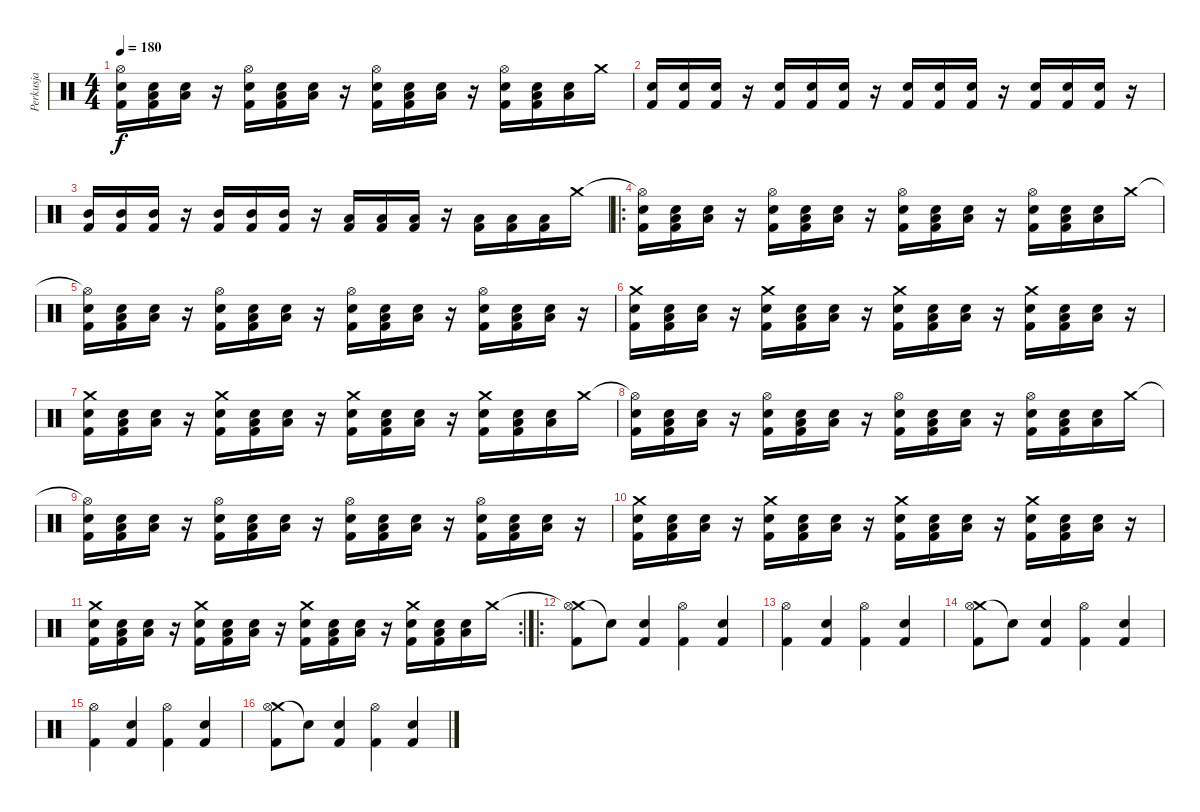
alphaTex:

\track ("Perkusja" "Perkusja") {instrument percussion}
\staff {score}
\articulation defaults
\ts (4 4)
\tempo 180
\clef neutral
\ks c
("Hi-Hat (open)" "Snare (hit) 2" "Kick (hit) 2").16{dy f} ("Low Tom (hit)" "Snare (hit) 2" "Kick (hit) 2").16 ("Low Tom (hit)" "Snare (hit) 2").16 r.16 ("Hi-Hat (open)" "Snare (hit) 2" "Kick (hit) 2").16 ("Low Tom (hit)" "Snare (hit) 2" "Kick (hit) 2").16 ("Low Tom (hit)" "Snare (hit) 2").16 r.16 ("Hi-Hat (open)" "Snare (hit) 2" "Kick (hit) 2").16 ("Low Tom (hit)" "Snare (hit) 2" "Kick (hit) 2").16 ("Low Tom (hit)" "Snare (hit) 2").16 r.16 ("Hi-Hat (open)" "Snare (hit) 2" "Kick (hit) 2").16 ("Low Tom (hit)" "Snare (hit) 2" "Kick (hit) 2").16 ("Low Tom (hit)" "Snare (hit) 2").16 "Crash medium (hit)".16 |
("Snare (hit) 2" "Kick (hit) 2").16 ("Snare (hit) 2" "Kick (hit) 2").16 ("Snare (hit) 2" "Kick (hit) 2").16 r.16 ("Snare (hit) 2" "Kick (hit) 2").16 ("Snare (hit) 2" "Kick (hit) 2").16 ("Snare (hit) 2" "Kick (hit) 2").16 r.16 ("Snare (hit) 2" "Kick (hit) 2").16 ("Snare (hit) 2" "Kick (hit) 2").16 ("Snare (hit) 2" "Kick (hit) 2").16 r.16 ("Snare (hit) 2" "Kick (hit) 2").16 ("Snare (hit) 2" "Kick (hit) 2").16 ("Snare (hit) 2" "Kick (hit) 2").16 r.16 |
("Mid Tom (hit)" "Kick (hit) 2").16 ("Mid Tom (hit)" "Kick (hit) 2").16 ("Mid Tom (hit)" "Kick (hit) 2").16 r.16 ("Mid Tom (hit)" "Kick (hit) 2").16 ("Mid Tom (hit)" "Kick (hit) 2").16 ("Mid Tom (hit)" "Kick (hit) 2").16 r.16 ("Low Tom (hit)" "Kick (hit) 2").16 ("Low Tom (hit)" "Kick (hit) 2").16 ("Low Tom (hit)" "Kick (hit) 2").16 r.16 ("Low Tom (hit)" "Kick (hit) 2").16 ("Low Tom (hit)" "Kick (hit) 2").16 ("Low Tom (hit)" "Kick (hit) 2").16 "Crash medium (hit)".16 |
\ro
("Hi-Hat (open)"{t} "Snare (hit) 2" "Kick (hit) 2").16 ("Low Tom (hit)" "Snare (hit) 2" "Kick (hit) 2").16 ("Low Tom (hit)" "Snare (hit) 2").16 r.16 ("Hi-Hat (open)" "Snare (hit) 2" "Kick (hit) 2").16 ("Low Tom (hit)" "Snare (hit) 2" "Kick (hit) 2").16 ("Low Tom (hit)" "Snare (hit) 2").16 r.16 ("Hi-Hat (open)" "Snare (hit) 2" "Kick (hit) 2").16 ("Low Tom (hit)" "Snare (hit) 2" "Kick (hit) 2").16 ("Low Tom (hit)" "Snare (hit) 2").16 r.16 ("Hi-Hat (open)" "Snare (hit) 2" "Kick (hit) 2").16 ("Low Tom (hit)" "Snare (hit) 2" "Kick (hit) 2").16 ("Low Tom (hit)" "Snare (hit) 2").16 "Crash medium (hit)".16 |
("Hi-Hat (open)"{t} "Snare (hit) 2" "Kick (hit) 2").16 ("Low Tom (hit)" "Snare (hit) 2" "Kick (hit) 2").16 ("Low Tom (hit)" "Snare (hit) 2").16 r.16 ("Hi-Hat (open)" "Snare (hit) 2" "Kick (hit) 2").16 ("Low Tom (hit)" "Snare (hit) 2" "Kick (hit) 2").16 ("Low Tom (hit)" "Snare (hit) 2").16 r.16 ("Hi-Hat (open)" "Snare (hit) 2" "Kick (hit) 2").16 ("Low Tom (hit)" "Snare (hit) 2" "Kick (hit) 2").16 ("Low Tom (hit)" "Snare (hit) 2").16 r.16 ("Hi-Hat (open)" "Snare (hit) 2" "Kick (hit) 2").16 ("Low Tom (hit)" "Snare (hit) 2" "Kick (hit) 2").16 ("Low Tom (hit)" "Snare (hit) 2").16 r.16 |
("Crash medium (hit)" "Snare (hit) 2" "Kick (hit) 2").16 ("Low Tom (hit)" "Snare (hit) 2" "Kick (hit) 2").16 ("Low Tom (hit)" "Snare (hit) 2").16 r.16 ("Crash medium (hit)" "Snare (hit) 2" "Kick (hit) 2").16 ("Low Tom (hit)" "Snare (hit) 2" "Kick (hit) 2").16 ("Low Tom (hit)" "Snare (hit) 2").16 r.16 ("Crash medium (hit)" "Snare (hit) 2" "Kick (hit) 2").16 ("Low Tom (hit)" "Snare (hit) 2" "Kick (hit) 2").16 ("Low Tom (hit)" "Snare (hit) 2").16 r.16 ("Crash medium (hit)" "Snare (hit) 2" "Kick (hit) 2").16 ("Low Tom (hit)" "Snare (hit) 2" "Kick (hit) 2").16 ("Low Tom (hit)" "Snare (hit) 2").16 r.16 |
("Crash medium (hit)" "Snare (hit) 2" "Kick (hit) 2").16 ("Low Tom (hit)" "Snare (hit) 2" "Kick (hit) 2").16 ("Low Tom (hit)" "Snare (hit) 2").16 r.16 ("Crash medium (hit)" "Snare (hit) 2" "Kick (hit) 2").16 ("Low Tom (hit)" "Snare (hit) 2" "Kick (hit) 2").16 ("Low Tom (hit)" "Snare (hit) 2").16 r.16 ("Crash medium (hit)" "Snare (hit) 2" "Kick (hit) 2").16 ("Low Tom (hit)" "Snare (hit) 2" "Kick (hit) 2").16 ("Low Tom (hit)" "Snare (hit) 2").16 r.16 ("Crash medium (hit)" "Snare (hit) 2" "Kick (hit) 2").16 ("Low Tom (hit)" "Snare (hit) 2" "Kick (hit) 2").16 ("Low Tom (hit)" "Snare (hit) 2").16 "Crash medium (hit)".16 |
("Hi-Hat (open)"{t} "Snare (hit) 2" "Kick (hit) 2").16 ("Low Tom (hit)" "Snare (hit) 2" "Kick (hit) 2").16 ("Low Tom (hit)" "Snare (hit) 2").16 r.16 ("Hi-Hat (open)" "Snare (hit) 2" "Kick (hit) 2").16 ("Low Tom (hit)" "Snare (hit) 2" "Kick (hit) 2").16 ("Low Tom (hit)" "Snare (hit) 2").16 r.16 ("Hi-Hat (open)" "Snare (hit) 2" "Kick (hit) 2").16 ("Low Tom (hit)" "Snare (hit) 2" "Kick (hit) 2").16 ("Low Tom (hit)" "Snare (hit) 2").16 r.16 ("Hi-Hat (open)" "Snare (hit) 2" "Kick (hit) 2").16 ("Low Tom (hit)" "Snare (hit) 2" "Kick (hit) 2").16 ("Low Tom (hit)" "Snare (hit) 2").16 "Crash medium (hit)".16 |
("Hi-Hat (open)"{t} "Snare (hit) 2" "Kick (hit) 2").16 ("Low Tom (hit)" "Snare (hit) 2" "Kick (hit) 2").16 ("Low Tom (hit)" "Snare (hit) 2").16 r.16 ("Hi-Hat (open)" "Snare (hit) 2" "Kick (hit) 2").16 ("Low Tom (hit)" "Snare (hit) 2" "Kick (hit) 2").16 ("Low Tom (hit)" "Snare (hit) 2").16 r.16 ("Hi-Hat (open)" "Snare (hit) 2" "Kick (hit) 2").16 ("Low Tom (hit)" "Snare (hit) 2" "Kick (hit) 2").16 ("Low Tom (hit)" "Snare (hit) 2").16 r.16 ("Hi-Hat (open)" "Snare (hit) 2" "Kick (hit) 2").16 ("Low Tom (hit)" "Snare (hit) 2" "Kick (hit) 2").16 ("Low Tom (hit)" "Snare (hit) 2").16 r.16 |
("Crash medium (hit)" "Snare (hit) 2" "Kick (hit) 2").16 ("Low Tom (hit)" "Snare (hit) 2" "Kick (hit) 2").16 ("Low Tom (hit)" "Snare (hit) 2").16 r.16 ("Crash medium (hit)" "Snare (hit) 2" "Kick (hit) 2").16 ("Low Tom (hit)" "Snare (hit) 2" "Kick (hit) 2").16 ("Low Tom (hit)" "Snare (hit) 2").16 r.16 ("Crash medium (hit)" "Snare (hit) 2" "Kick (hit) 2").16 ("Low Tom (hit)" "Snare (hit) 2" "Kick (hit) 2").16 ("Low Tom (hit)" "Snare (hit) 2").16 r.16 ("Crash medium (hit)" "Snare (hit) 2" "Kick (hit) 2").16 ("Low Tom (hit)" "Snare (hit) 2" "Kick (hit) 2").16 ("Low Tom (hit)" "Snare (hit) 2").16 r.16 |
\rc 2
("Crash medium (hit)" "Snare (hit) 2" "Kick (hit) 2").16 ("Low Tom (hit)" "Snare (hit) 2" "Kick (hit) 2").16 ("Low Tom (hit)" "Snare (hit) 2").16 r.16 ("Crash medium (hit)" "Snare (hit) 2" "Kick (hit) 2").16 ("Low Tom (hit)" "Snare (hit) 2" "Kick (hit) 2").16 ("Low Tom (hit)" "Snare (hit) 2").16 r.16 ("Crash medium (hit)" "Snare (hit) 2" "Kick (hit) 2").16 ("Low Tom (hit)" "Snare (hit) 2" "Kick (hit) 2").16 ("Low Tom (hit)" "Snare (hit) 2").16 r.16 ("Crash medium (hit)" "Snare (hit) 2" "Kick (hit) 2").16 ("Low Tom (hit)" "Snare (hit) 2" "Kick (hit) 2").16 ("Low Tom (hit)" "Snare (hit) 2").16 "Crash medium (hit)".16 |
\ro
("Crash medium (hit)"{t} "Hi-Hat (open)" "Kick (hit) 2").8 "Snare (hit)"{t}.8 ("Electric Snare (hit)" "Kick (hit) 2").4 ("Hi-Hat (open)" "Kick (hit) 2").4 ("Electric Snare (hit)" "Kick (hit) 2").4 |
("Hi-Hat (open)" "Kick (hit) 2").4 ("Electric Snare (hit)" "Kick (hit) 2").4 ("Hi-Hat (open)" "Kick (hit) 2").4 ("Electric Snare (hit)" "Kick (hit) 2").4 |
("Crash medium (hit)" "Hi-Hat (open)" "Kick (hit) 2").8 "Snare (hit)"{t}.8 ("Electric Snare (hit)" "Kick (hit) 2").4 ("Hi-Hat (open)" "Kick (hit) 2").4 ("Electric Snare (hit)" "Kick (hit) 2").4 |
("Hi-Hat (open)" "Kick (hit) 2").4 ("Electric Snare (hit)" "Kick (hit) 2").4 ("Hi-Hat (open)" "Kick (hit) 2").4 ("Electric Snare (hit)" "Kick (hit) 2").4 |
("Crash medium (hit)" "Hi-Hat (open)" "Kick (hit) 2").8 "Snare (hit)"{t}.8 ("Electric Snare (hit)" "Kick (hit) 2").4 ("Hi-Hat (open)" "Kick (hit) 2").4 ("Electric Snare (hit)" "Kick (hit) 2").4
